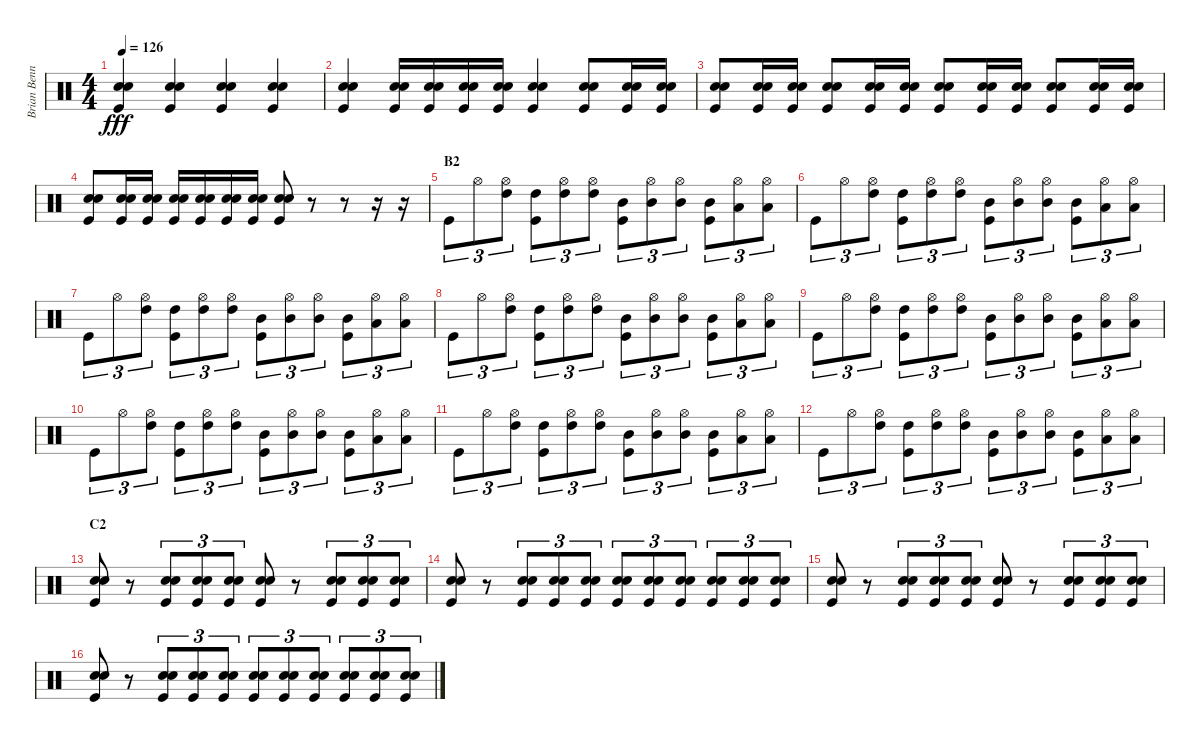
\track ("Brian Bennett" "Brian Benn") {instrument percussion}
\staff {score}
\articulation defaults
\ts (4 4)
\tempo 126
\clef neutral
\ks c
("Electric Snare (hit)" "Snare (hit) 2" "Kick (hit)").4{dy fff} ("Electric Snare (hit)" "Snare (hit) 2" "Kick (hit)").4 ("Electric Snare (hit)" "Snare (hit) 2" "Kick (hit)").4 ("Electric Snare (hit)" "Snare (hit) 2" "Kick (hit)").4 |
("Electric Snare (hit)" "Snare (hit) 2" "Kick (hit)").4 ("Electric Snare (hit)" "Snare (hit) 2" "Kick (hit)").16 ("Electric Snare (hit)" "Snare (hit) 2" "Kick (hit)").16 ("Electric Snare (hit)" "Snare (hit) 2" "Kick (hit)").16 ("Electric Snare (hit)" "Snare (hit) 2" "Kick (hit)").16 ("Electric Snare (hit)" "Snare (hit) 2" "Kick (hit)").4 ("Electric Snare (hit)" "Snare (hit) 2" "Kick (hit)").8 ("Electric Snare (hit)" "Snare (hit) 2" "Kick (hit)").16 ("Electric Snare (hit)" "Snare (hit) 2" "Kick (hit)").16 |
("Electric Snare (hit)" "Snare (hit) 2" "Kick (hit)").8 ("Electric Snare (hit)" "Snare (hit) 2" "Kick (hit)").16 ("Electric Snare (hit)" "Snare (hit) 2" "Kick (hit)").16 ("Electric Snare (hit)" "Snare (hit) 2" "Kick (hit)").8 ("Electric Snare (hit)" "Snare (hit) 2" "Kick (hit)").16 ("Electric Snare (hit)" "Snare (hit) 2" "Kick (hit)").16 ("Electric Snare (hit)" "Snare (hit) 2" "Kick (hit)").8 ("Electric Snare (hit)" "Snare (hit) 2" "Kick (hit)").16 ("Electric Snare (hit)" "Snare (hit) 2" "Kick (hit)").16 ("Electric Snare (hit)" "Snare (hit) 2" "Kick (hit)").8 ("Electric Snare (hit)" "Snare (hit) 2" "Kick (hit)").16 ("Electric Snare (hit)" "Snare (hit) 2" "Kick (hit)").16 |
("Electric Snare (hit)" "Snare (hit) 2" "Kick (hit)").8 ("Electric Snare (hit)" "Snare (hit) 2" "Kick (hit)").16 ("Electric Snare (hit)" "Snare (hit) 2" "Kick (hit)").16 ("Electric Snare (hit)" "Snare (hit) 2" "Kick (hit)").16 ("Electric Snare (hit)" "Snare (hit) 2" "Kick (hit)").16 ("Electric Snare (hit)" "Snare (hit) 2" "Kick (hit)").16 ("Electric Snare (hit)" "Snare (hit) 2" "Kick (hit)").16 ("Electric Snare (hit)" "Snare (hit) 2" "Kick (hit)").8 r.8 r.8 r.16 r.16 |
\section ("" "B2")
"Kick (hit)".8{tu (3 2)} "Hi-Hat (open)".8{tu (3 2)} ("Hi-Hat (open)" "High Tom (hit)").8{tu (3 2)} ("High Tom (hit)" "Kick (hit)").8{tu (3 2)} ("Hi-Hat (open)" "High Tom (hit)").8{tu (3 2)} ("Hi-Hat (open)" "High Tom (hit)").8{tu (3 2)} ("Mid Tom (hit)" "Kick (hit)").8{tu (3 2)} ("Hi-Hat (open)" "Mid Tom (hit)").8{tu (3 2)} ("Hi-Hat (open)" "Mid Tom (hit)").8{tu (3 2)} ("Mid Tom (hit)" "Kick (hit)").8{tu (3 2)} ("Hi-Hat (open)" "Low Tom (hit)").8{tu (3 2)} ("Hi-Hat (open)" "Low Tom (hit)").8{tu (3 2)} |
"Kick (hit)".8{tu (3 2)} "Hi-Hat (open)".8{tu (3 2)} ("Hi-Hat (open)" "High Tom (hit)").8{tu (3 2)} ("High Tom (hit)" "Kick (hit)").8{tu (3 2)} ("Hi-Hat (open)" "High Tom (hit)").8{tu (3 2)} ("Hi-Hat (open)" "High Tom (hit)").8{tu (3 2)} ("Mid Tom (hit)" "Kick (hit)").8{tu (3 2)} ("Hi-Hat (open)" "Mid Tom (hit)").8{tu (3 2)} ("Hi-Hat (open)" "Mid Tom (hit)").8{tu (3 2)} ("Mid Tom (hit)" "Kick (hit)").8{tu (3 2)} ("Hi-Hat (open)" "Low Tom (hit)").8{tu (3 2)} ("Hi-Hat (open)" "Low Tom (hit)").8{tu (3 2)} |
"Kick (hit)".8{tu (3 2)} "Hi-Hat (open)".8{tu (3 2)} ("Hi-Hat (open)" "High Tom (hit)").8{tu (3 2)} ("High Tom (hit)" "Kick (hit)").8{tu (3 2)} ("Hi-Hat (open)" "High Tom (hit)").8{tu (3 2)} ("Hi-Hat (open)" "High Tom (hit)").8{tu (3 2)} ("Mid Tom (hit)" "Kick (hit)").8{tu (3 2)} ("Hi-Hat (open)" "Mid Tom (hit)").8{tu (3 2)} ("Hi-Hat (open)" "Mid Tom (hit)").8{tu (3 2)} ("Mid Tom (hit)" "Kick (hit)").8{tu (3 2)} ("Hi-Hat (open)" "Low Tom (hit)").8{tu (3 2)} ("Hi-Hat (open)" "Low Tom (hit)").8{tu (3 2)} |
"Kick (hit)".8{tu (3 2)} "Hi-Hat (open)".8{tu (3 2)} ("Hi-Hat (open)" "High Tom (hit)").8{tu (3 2)} ("High Tom (hit)" "Kick (hit)").8{tu (3 2)} ("Hi-Hat (open)" "High Tom (hit)").8{tu (3 2)} ("Hi-Hat (open)" "High Tom (hit)").8{tu (3 2)} ("Mid Tom (hit)" "Kick (hit)").8{tu (3 2)} ("Hi-Hat (open)" "Mid Tom (hit)").8{tu (3 2)} ("Hi-Hat (open)" "Mid Tom (hit)").8{tu (3 2)} ("Mid Tom (hit)" "Kick (hit)").8{tu (3 2)} ("Hi-Hat (open)" "Low Tom (hit)").8{tu (3 2)} ("Hi-Hat (open)" "Low Tom (hit)").8{tu (3 2)} |
"Kick (hit)".8{tu (3 2)} "Hi-Hat (open)".8{tu (3 2)} ("Hi-Hat (open)" "High Tom (hit)").8{tu (3 2)} ("High Tom (hit)" "Kick (hit)").8{tu (3 2)} ("Hi-Hat (open)" "High Tom (hit)").8{tu (3 2)} ("Hi-Hat (open)" "High Tom (hit)").8{tu (3 2)} ("Mid Tom (hit)" "Kick (hit)").8{tu (3 2)} ("Hi-Hat (open)" "Mid Tom (hit)").8{tu (3 2)} ("Hi-Hat (open)" "Mid Tom (hit)").8{tu (3 2)} ("Mid Tom (hit)" "Kick (hit)").8{tu (3 2)} ("Hi-Hat (open)" "Low Tom (hit)").8{tu (3 2)} ("Hi-Hat (open)" "Low Tom (hit)").8{tu (3 2)} |
"Kick (hit)".8{tu (3 2)} "Hi-Hat (open)".8{tu (3 2)} ("Hi-Hat (open)" "High Tom (hit)").8{tu (3 2)} ("High Tom (hit)" "Kick (hit)").8{tu (3 2)} ("Hi-Hat (open)" "High Tom (hit)").8{tu (3 2)} ("Hi-Hat (open)" "High Tom (hit)").8{tu (3 2)} ("Mid Tom (hit)" "Kick (hit)").8{tu (3 2)} ("Hi-Hat (open)" "Mid Tom (hit)").8{tu (3 2)} ("Hi-Hat (open)" "Mid Tom (hit)").8{tu (3 2)} ("Mid Tom (hit)" "Kick (hit)").8{tu (3 2)} ("Hi-Hat (open)" "Low Tom (hit)").8{tu (3 2)} ("Hi-Hat (open)" "Low Tom (hit)").8{tu (3 2)} |
"Kick (hit)".8{tu (3 2)} "Hi-Hat (open)".8{tu (3 2)} ("Hi-Hat (open)" "High Tom (hit)").8{tu (3 2)} ("High Tom (hit)" "Kick (hit)").8{tu (3 2)} ("Hi-Hat (open)" "High Tom (hit)").8{tu (3 2)} ("Hi-Hat (open)" "High Tom (hit)").8{tu (3 2)} ("Mid Tom (hit)" "Kick (hit)").8{tu (3 2)} ("Hi-Hat (open)" "Mid Tom (hit)").8{tu (3 2)} ("Hi-Hat (open)" "Mid Tom (hit)").8{tu (3 2)} ("Mid Tom (hit)" "Kick (hit)").8{tu (3 2)} ("Hi-Hat (open)" "Low Tom (hit)").8{tu (3 2)} ("Hi-Hat (open)" "Low Tom (hit)").8{tu (3 2)} |
"Kick (hit)".8{tu (3 2)} "Hi-Hat (open)".8{tu (3 2)} ("Hi-Hat (open)" "High Tom (hit)").8{tu (3 2)} ("High Tom (hit)" "Kick (hit)").8{tu (3 2)} ("Hi-Hat (open)" "High Tom (hit)").8{tu (3 2)} ("Hi-Hat (open)" "High Tom (hit)").8{tu (3 2)} ("Mid Tom (hit)" "Kick (hit)").8{tu (3 2)} ("Hi-Hat (open)" "Mid Tom (hit)").8{tu (3 2)} ("Hi-Hat (open)" "Mid Tom (hit)").8{tu (3 2)} ("Mid Tom (hit)" "Kick (hit)").8{tu (3 2)} ("Hi-Hat (open)" "Low Tom (hit)").8{tu (3 2)} ("Hi-Hat (open)" "Low Tom (hit)").8{tu (3 2)} |
\section ("" "C2")
("Electric Snare (hit)" "Snare (hit) 2" "Kick (hit)").8 r.8 ("Electric Snare (hit)" "Snare (hit) 2" "Kick (hit)").8{tu (3 2)} ("Electric Snare (hit)" "Snare (hit) 2" "Kick (hit)").8{tu (3 2)} ("Electric Snare (hit)" "Snare (hit) 2" "Kick (hit)").8{tu (3 2)} ("Electric Snare (hit)" "Snare (hit) 2" "Kick (hit)").8 r.8 ("Electric Snare (hit)" "Snare (hit) 2" "Kick (hit)").8{tu (3 2)} ("Electric Snare (hit)" "Snare (hit) 2" "Kick (hit)").8{tu (3 2)} ("Electric Snare (hit)" "Snare (hit) 2" "Kick (hit)").8{tu (3 2)} |
("Electric Snare (hit)" "Snare (hit) 2" "Kick (hit)").8 r.8 ("Electric Snare (hit)" "Snare (hit) 2" "Kick (hit)").8{tu (3 2)} ("Electric Snare (hit)" "Snare (hit) 2" "Kick (hit)").8{tu (3 2)} ("Electric Snare (hit)" "Snare (hit) 2" "Kick (hit)").8{tu (3 2)} ("Electric Snare (hit)" "Snare (hit) 2" "Kick (hit)").8{tu (3 2)} ("Electric Snare (hit)" "Snare (hit) 2" "Kick (hit)").8{tu (3 2)} ("Electric Snare (hit)" "Snare (hit) 2" "Kick (hit)").8{tu (3 2)} ("Electric Snare (hit)" "Snare (hit) 2" "Kick (hit)").8{tu (3 2)} ("Electric Snare (hit)" "Snare (hit) 2" "Kick (hit)").8{tu (3 2)} ("Electric Snare (hit)" "Snare (hit) 2" "Kick (hit)").8{tu (3 2)} |
("Electric Snare (hit)" "Snare (hit) 2" "Kick (hit)").8 r.8 ("Electric Snare (hit)" "Snare (hit) 2" "Kick (hit)").8{tu (3 2)} ("Electric Snare (hit)" "Snare (hit) 2" "Kick (hit)").8{tu (3 2)} ("Electric Snare (hit)" "Snare (hit) 2" "Kick (hit)").8{tu (3 2)} ("Electric Snare (hit)" "Snare (hit) 2" "Kick (hit)").8 r.8 ("Electric Snare (hit)" "Snare (hit) 2" "Kick (hit)").8{tu (3 2)} ("Electric Snare (hit)" "Snare (hit) 2" "Kick (hit)").8{tu (3 2)} ("Electric Snare (hit)" "Snare (hit) 2" "Kick (hit)").8{tu (3 2)} |
("Electric Snare (hit)" "Snare (hit) 2" "Kick (hit)").8 r.8 ("Electric Snare (hit)" "Snare (hit) 2" "Kick (hit)").8{tu (3 2)} ("Electric Snare (hit)" "Snare (hit) 2" "Kick (hit)").8{tu (3 2)} ("Electric Snare (hit)" "Snare (hit) 2" "Kick (hit)").8{tu (3 2)} ("Electric Snare (hit)" "Snare (hit) 2" "Kick (hit)").8{tu (3 2)} ("Electric Snare (hit)" "Snare (hit) 2" "Kick (hit)").8{tu (3 2)} ("Electric Snare (hit)" "Snare (hit) 2" "Kick (hit)").8{tu (3 2)} ("Electric Snare (hit)" "Snare (hit) 2" "Kick (hit)").8{tu (3 2)} ("Electric Snare (hit)" "Snare (hit) 2" "Kick (hit)").8{tu (3 2)} ("Electric Snare (hit)" "Snare (hit) 2" "Kick (hit)").8{tu (3 2)}
